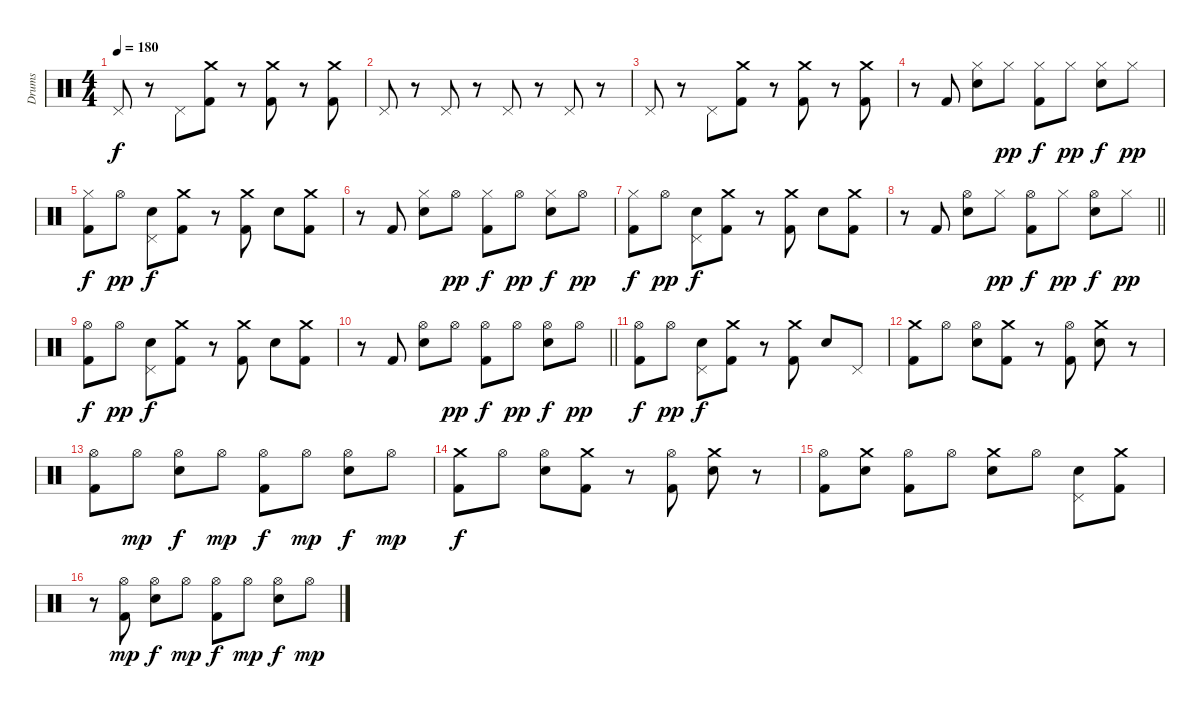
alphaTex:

\track ("Drums" "Drums") {instrument percussion}
\staff {score}
\articulation defaults
\ts (4 4)
\tempo 180
\clef neutral
\ks c "Pedal Hi-Hat (hit)".8{dy f}
r.8 "Pedal Hi-Hat (hit)".8 ("Crash medium (hit)" "Kick (hit) 2").8 r.8 ("Kick (hit) 2" "Crash medium (hit)").8 r.8 ("Kick (hit) 2" "Crash medium (hit)").8 |
"Pedal Hi-Hat (hit)".8 r.8 "Pedal Hi-Hat (hit)".8 r.8 "Pedal Hi-Hat (hit)".8 r.8 "Pedal Hi-Hat (hit)".8 r.8 |
"Pedal Hi-Hat (hit)".8 r.8 "Pedal Hi-Hat (hit)".8 ("Crash medium (hit)" "Kick (hit) 2").8 r.8 ("Kick (hit) 2" "Crash medium (hit)").8 r.8 ("Kick (hit) 2" "Crash medium (hit)").8 |
r.8 "Kick (hit) 2".8 ("Hi-Hat (closed)" "Electric Snare (hit)").8 "Hi-Hat (closed)".8{dy pp} ("Hi-Hat (closed)" "Kick (hit) 2").8{dy f} "Hi-Hat (closed)".8{dy pp} ("Hi-Hat (closed)" "Electric Snare (hit)").8{dy f} "Hi-Hat (closed)".8{dy pp} |
("Hi-Hat (closed)" "Kick (hit) 2").8{dy f} "Hi-Hat (open)".8{dy pp} ("Pedal Hi-Hat (hit)" "Electric Snare (hit)").8{dy f} ("Crash medium (hit)" "Kick (hit) 2").8 r.8 ("Crash medium (hit)" "Kick (hit) 2").8 "Electric Snare (hit)".8 ("Crash medium (hit)" "Kick (hit) 2").8 |
r.8 "Kick (hit) 2".8 ("Hi-Hat (closed)" "Electric Snare (hit)").8 "Hi-Hat (open)".8{dy pp} ("Hi-Hat (closed)" "Kick (hit) 2").8{dy f} "Hi-Hat (open)".8{dy pp} ("Hi-Hat (closed)" "Electric Snare (hit)").8{dy f} "Hi-Hat (open)".8{dy pp} |
("Hi-Hat (closed)" "Kick (hit) 2").8{dy f} "Hi-Hat (open)".8{dy pp} ("Pedal Hi-Hat (hit)" "Electric Snare (hit)").8{dy f} ("Crash medium (hit)" "Kick (hit) 2").8 r.8 ("Crash medium (hit)" "Kick (hit) 2").8 "Electric Snare (hit)".8 ("Crash medium (hit)" "Kick (hit) 2").8 |
\barLineRight lightlight
r.8 "Kick (hit) 2".8 ("Hi-Hat (open)" "Electric Snare (hit)").8 "Hi-Hat (closed)".8{dy pp} ("Hi-Hat (open)" "Kick (hit) 2").8{dy f} "Hi-Hat (closed)".8{dy pp} ("Hi-Hat (open)" "Electric Snare (hit)").8{dy f} "Hi-Hat (closed)".8{dy pp} |
("Hi-Hat (open)" "Kick (hit) 2").8{dy f} "Hi-Hat (open)".8{dy pp} ("Pedal Hi-Hat (hit)" "Electric Snare (hit)").8{dy f} ("Crash medium (hit)" "Kick (hit) 2").8 r.8 ("Crash medium (hit)" "Kick (hit) 2").8 "Electric Snare (hit)".8 ("Crash medium (hit)" "Kick (hit) 2").8 |
\barLineRight lightlight
r.8 "Kick (hit) 2".8 ("Hi-Hat (open)" "Electric Snare (hit)").8 "Hi-Hat (open)".8{dy pp} ("Hi-Hat (open)" "Kick (hit) 2").8{dy f} "Hi-Hat (open)".8{dy pp} ("Hi-Hat (open)" "Electric Snare (hit)").8{dy f} "Hi-Hat (open)".8{dy pp} |
("Hi-Hat (open)" "Kick (hit) 2").8{dy f} "Hi-Hat (open)".8{dy pp} ("Pedal Hi-Hat (hit)" "Electric Snare (hit)").8{dy f} ("Crash medium (hit)" "Kick (hit) 2").8 r.8 ("Crash medium (hit)" "Kick (hit) 2").8 "Electric Snare (hit)".8 "Pedal Hi-Hat (hit)".8 |
("Crash medium (hit)" "Kick (hit) 2").8 "Hi-Hat (open)".8 ("Hi-Hat (open)" "Electric Snare (hit)").8 ("Kick (hit) 2" "Crash medium (hit)").8 r.8 ("Hi-Hat (open)" "Kick (hit) 2").8 ("Crash medium (hit)" "Electric Snare (hit)").8 r.8 |
("Hi-Hat (open)" "Kick (hit) 2").8 "Hi-Hat (open)".8{dy mp} ("Hi-Hat (open)" "Electric Snare (hit)").8{dy f} "Hi-Hat (open)".8{dy mp} ("Hi-Hat (open)" "Kick (hit) 2").8{dy f} "Hi-Hat (open)".8{dy mp} ("Hi-Hat (open)" "Electric Snare (hit)").8{dy f} "Hi-Hat (open)".8{dy mp} |
("Crash medium (hit)" "Kick (hit) 2").8{dy f} "Hi-Hat (open)".8 ("Hi-Hat (open)" "Electric Snare (hit)").8 ("Kick (hit) 2" "Crash medium (hit)").8 r.8 ("Hi-Hat (open)" "Kick (hit) 2").8 ("Electric Snare (hit)" "Crash medium (hit)").8 r.8 |
("Hi-Hat (open)" "Kick (hit) 2").8 ("Crash medium (hit)" "Electric Snare (hit)").8 ("Hi-Hat (open)" "Kick (hit) 2").8 "Hi-Hat (open)".8 ("Crash medium (hit)" "Electric Snare (hit)").8 "Hi-Hat (open)".8 ("Pedal Hi-Hat (hit)" "Electric Snare (hit)").8 ("Kick (hit) 2" "Crash medium (hit)").8 |
r.8 ("Hi-Hat (open)" "Kick (hit) 2").8{dy mp} ("Hi-Hat (open)" "Electric Snare (hit)").8{dy f} "Hi-Hat (open)".8{dy mp} ("Hi-Hat (open)" "Kick (hit) 2").8{dy f} "Hi-Hat (open)".8{dy mp} ("Hi-Hat (open)" "Electric Snare (hit)").8{dy f} "Hi-Hat (open)".8{dy mp}
